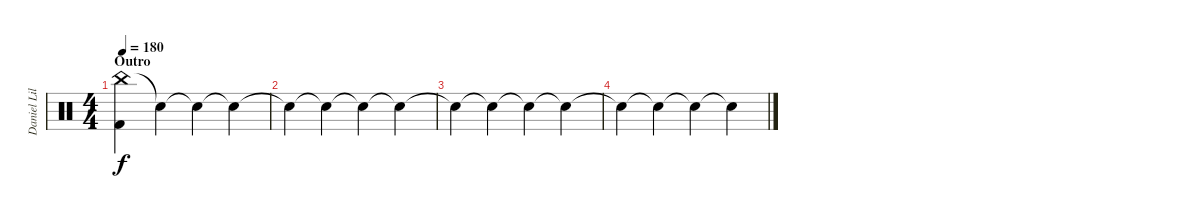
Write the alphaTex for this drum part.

\track ("Daniel Liljekvist" "Daniel Lil") {instrument percussion}
\staff {score}
\articulation defaults
\ts (4 4)
\section ("" "Outro")
\tempo 180
\clef neutral
\ks c
("China (hit)" "Kick (hit) 2").4{dy f} "Snare (hit)"{t}.4 "Snare (hit)"{t}.4 "Snare (hit)"{t}.4 |
"Snare (hit)"{t}.4 "Snare (hit)"{t}.4 "Snare (hit)"{t}.4 "Snare (hit)"{t}.4 |
"Snare (hit)"{t}.4 "Snare (hit)"{t}.4 "Snare (hit)"{t}.4 "Snare (hit)"{t}.4 |
"Snare (hit)"{t}.4 "Snare (hit)"{t}.4 "Snare (hit)"{t}.4 "Snare (hit)"{t}.4
